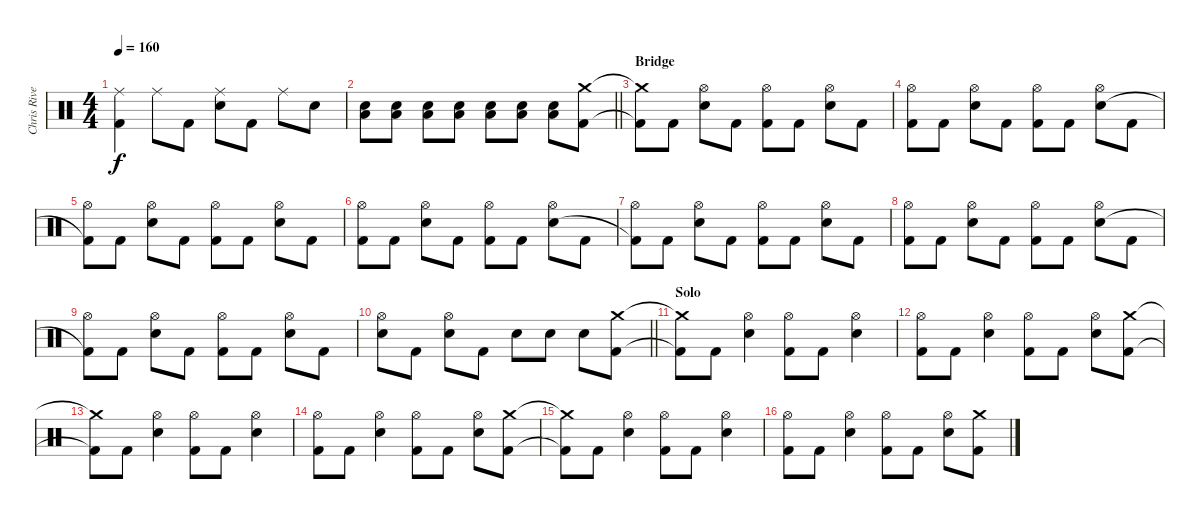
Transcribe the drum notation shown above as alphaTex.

\track ("Chris Rivers" "Chris Rive") {instrument percussion}
\staff {score}
\articulation defaults
\ts (4 4)
\tempo 160
\clef neutral
\ks c
("Ride (middle)" "Kick (hit) 2").4{dy f} "Ride (middle)".8 "Kick (hit) 2".8 ("Ride (middle)" "Electric Snare (hit)").8 "Kick (hit) 2".8 "Ride (middle)".8 "Electric Snare (hit)".8 |
\barLineRight lightlight
("Low Floor Tom (hit)" "Snare (hit) 2").8 ("Low Floor Tom (hit)" "Snare (hit) 2").8 ("Low Floor Tom (hit)" "Snare (hit) 2").8 ("Low Floor Tom (hit)" "Snare (hit) 2").8 ("Low Floor Tom (hit)" "Snare (hit) 2").8 ("Low Floor Tom (hit)" "Snare (hit) 2").8 ("Low Floor Tom (hit)" "Snare (hit) 2").8 ("Crash medium (hit)" "Kick (hit) 2").8 |
\section ("" "Bridge")
("Crash medium (hit)"{t} "Kick (hit) 2"{t}).8 "Kick (hit) 2".8 ("Hi-Hat (open)" "Electric Snare (hit)").8 "Kick (hit) 2".8 ("Hi-Hat (open)" "Kick (hit) 2").8 "Kick (hit) 2".8 ("Hi-Hat (open)" "Electric Snare (hit)").8 "Kick (hit) 2".8 |
("Hi-Hat (open)" "Kick (hit) 2").8 "Kick (hit) 2".8 ("Hi-Hat (open)" "Electric Snare (hit)").8 "Kick (hit) 2".8 ("Hi-Hat (open)" "Kick (hit) 2").8 "Kick (hit) 2".8 ("Hi-Hat (open)" "Electric Snare (hit)").8 "Kick (hit) 2".8 |
("Hi-Hat (open)" "Kick (hit) 2"{t}).8 "Kick (hit) 2".8 ("Hi-Hat (open)" "Electric Snare (hit)").8 "Kick (hit) 2".8 ("Hi-Hat (open)" "Kick (hit) 2").8 "Kick (hit) 2".8 ("Hi-Hat (open)" "Electric Snare (hit)").8 "Kick (hit) 2".8 |
("Hi-Hat (open)" "Kick (hit) 2").8 "Kick (hit) 2".8 ("Hi-Hat (open)" "Electric Snare (hit)").8 "Kick (hit) 2".8 ("Hi-Hat (open)" "Kick (hit) 2").8 "Kick (hit) 2".8 ("Hi-Hat (open)" "Electric Snare (hit)").8 "Kick (hit) 2".8 |
("Hi-Hat (open)" "Kick (hit) 2"{t}).8 "Kick (hit) 2".8 ("Hi-Hat (open)" "Electric Snare (hit)").8 "Kick (hit) 2".8 ("Hi-Hat (open)" "Kick (hit) 2").8 "Kick (hit) 2".8 ("Hi-Hat (open)" "Electric Snare (hit)").8 "Kick (hit) 2".8 |
("Hi-Hat (open)" "Kick (hit) 2").8 "Kick (hit) 2".8 ("Hi-Hat (open)" "Electric Snare (hit)").8 "Kick (hit) 2".8 ("Hi-Hat (open)" "Kick (hit) 2").8 "Kick (hit) 2".8 ("Hi-Hat (open)" "Electric Snare (hit)").8 "Kick (hit) 2".8 |
("Hi-Hat (open)" "Kick (hit) 2"{t}).8 "Kick (hit) 2".8 ("Hi-Hat (open)" "Electric Snare (hit)").8 "Kick (hit) 2".8 ("Hi-Hat (open)" "Kick (hit) 2").8 "Kick (hit) 2".8 ("Hi-Hat (open)" "Electric Snare (hit)").8 "Kick (hit) 2".8 |
\barLineRight lightlight
("Hi-Hat (open)" "Electric Snare (hit)").8 "Kick (hit) 2".8 ("Hi-Hat (open)" "Electric Snare (hit)").8 "Kick (hit) 2".8 "Electric Snare (hit)".8 "Electric Snare (hit)".8 "Electric Snare (hit)".8 ("Crash medium (hit)" "Kick (hit) 2").8 |
\section ("" "Solo")
("Crash medium (hit)"{t} "Kick (hit) 2"{t}).8 "Kick (hit) 2".8 ("Hi-Hat (open)" "Electric Snare (hit)").4 ("Hi-Hat (open)" "Kick (hit) 2").8 "Kick (hit) 2".8 ("Hi-Hat (open)" "Electric Snare (hit)").4 |
("Hi-Hat (open)" "Kick (hit) 2").8 "Kick (hit) 2".8 ("Hi-Hat (open)" "Electric Snare (hit)").4 ("Hi-Hat (open)" "Kick (hit) 2").8 "Kick (hit) 2".8 ("Hi-Hat (open)" "Electric Snare (hit)").8 ("Crash medium (hit)" "Kick (hit) 2").8 |
("Crash medium (hit)"{t} "Kick (hit) 2"{t}).8 "Kick (hit) 2".8 ("Hi-Hat (open)" "Electric Snare (hit)").4 ("Hi-Hat (open)" "Kick (hit) 2").8 "Kick (hit) 2".8 ("Hi-Hat (open)" "Electric Snare (hit)").4 |
("Hi-Hat (open)" "Kick (hit) 2").8 "Kick (hit) 2".8 ("Hi-Hat (open)" "Electric Snare (hit)").4 ("Hi-Hat (open)" "Kick (hit) 2").8 "Kick (hit) 2".8 ("Hi-Hat (open)" "Electric Snare (hit)").8 ("Crash medium (hit)" "Kick (hit) 2").8 |
("Crash medium (hit)"{t} "Kick (hit) 2"{t}).8 "Kick (hit) 2".8 ("Hi-Hat (open)" "Electric Snare (hit)").4 ("Hi-Hat (open)" "Kick (hit) 2").8 "Kick (hit) 2".8 ("Hi-Hat (open)" "Electric Snare (hit)").4 |
("Hi-Hat (open)" "Kick (hit) 2").8 "Kick (hit) 2".8 ("Hi-Hat (open)" "Electric Snare (hit)").4 ("Hi-Hat (open)" "Kick (hit) 2").8 "Kick (hit) 2".8 ("Hi-Hat (open)" "Electric Snare (hit)").8 ("Crash medium (hit)" "Kick (hit) 2").8
